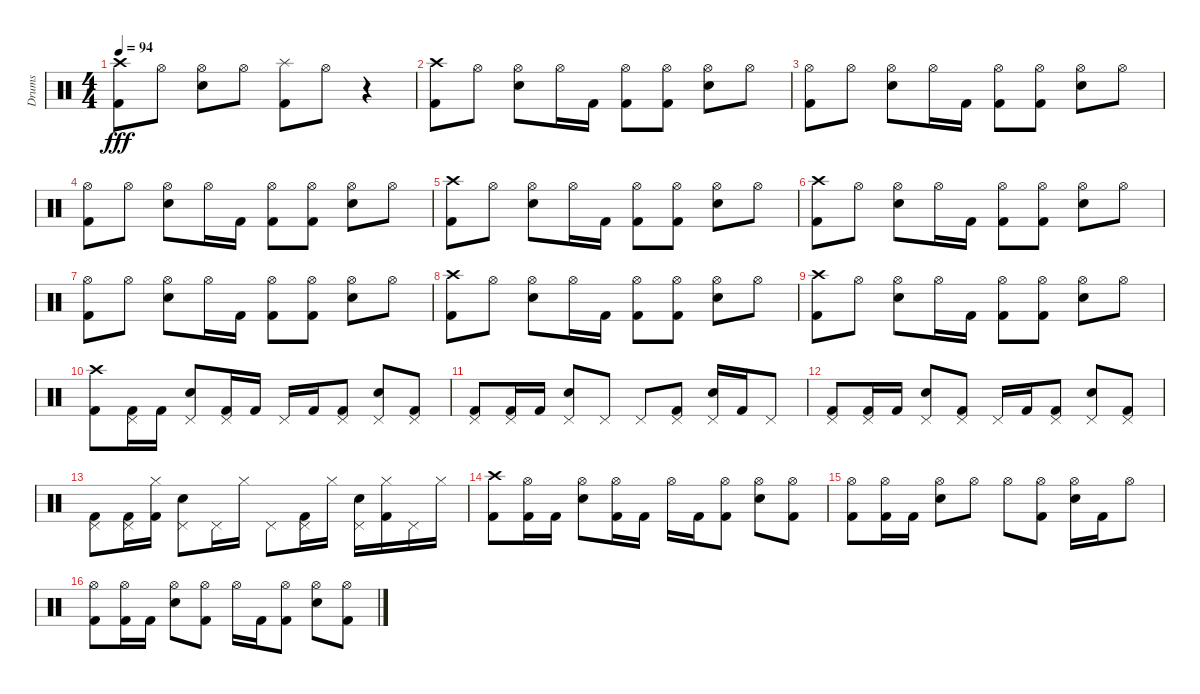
\track ("Drums" "Drums") {instrument percussion}
\staff {score}
\articulation defaults
\ts (4 4)
\tempo 94
\clef neutral
\ks c
("Kick (hit) 2" "Crash high (hit)").8{dy fff} "Hi-Hat (open)".8 ("Snare (hit) 2" "Hi-Hat (open)").8 "Hi-Hat (open)".8 ("Kick (hit) 2" "Splash (hit)").8 "Hi-Hat (open)".8 r.4 |
("Kick (hit) 2" "Crash high (hit)").8 "Hi-Hat (open)".8 ("Snare (hit) 2" "Hi-Hat (open)").8 "Hi-Hat (open)".16 "Kick (hit) 2".16 ("Kick (hit) 2" "Hi-Hat (open)").8 ("Kick (hit) 2" "Hi-Hat (open)").8 ("Snare (hit) 2" "Hi-Hat (open)").8 "Hi-Hat (open)".8 |
("Kick (hit) 2" "Hi-Hat (open)").8 "Hi-Hat (open)".8 ("Snare (hit) 2" "Hi-Hat (open)").8 "Hi-Hat (open)".16 "Kick (hit) 2".16 ("Kick (hit) 2" "Hi-Hat (open)").8 ("Kick (hit) 2" "Hi-Hat (open)").8 ("Snare (hit) 2" "Hi-Hat (open)").8 "Hi-Hat (open)".8 |
("Kick (hit) 2" "Hi-Hat (open)").8 "Hi-Hat (open)".8 ("Snare (hit) 2" "Hi-Hat (open)").8 "Hi-Hat (open)".16 "Kick (hit) 2".16 ("Kick (hit) 2" "Hi-Hat (open)").8 ("Kick (hit) 2" "Hi-Hat (open)").8 ("Snare (hit) 2" "Hi-Hat (open)").8 "Hi-Hat (open)".8 |
("Kick (hit) 2" "Crash high (hit)").8 "Hi-Hat (open)".8 ("Snare (hit) 2" "Hi-Hat (open)").8 "Hi-Hat (open)".16 "Kick (hit) 2".16 ("Kick (hit) 2" "Hi-Hat (open)").8 ("Kick (hit) 2" "Hi-Hat (open)").8 ("Snare (hit) 2" "Hi-Hat (open)").8 "Hi-Hat (open)".8 |
("Kick (hit) 2" "Crash high (hit)").8 "Hi-Hat (open)".8 ("Snare (hit) 2" "Hi-Hat (open)").8 "Hi-Hat (open)".16 "Kick (hit) 2".16 ("Kick (hit) 2" "Hi-Hat (open)").8 ("Kick (hit) 2" "Hi-Hat (open)").8 ("Snare (hit) 2" "Hi-Hat (open)").8 "Hi-Hat (open)".8 |
("Kick (hit) 2" "Hi-Hat (open)").8 "Hi-Hat (open)".8 ("Snare (hit) 2" "Hi-Hat (open)").8 "Hi-Hat (open)".16 "Kick (hit) 2".16 ("Kick (hit) 2" "Hi-Hat (open)").8 ("Kick (hit) 2" "Hi-Hat (open)").8 ("Snare (hit) 2" "Hi-Hat (open)").8 "Hi-Hat (open)".8 |
("Kick (hit) 2" "Crash high (hit)").8 "Hi-Hat (open)".8 ("Snare (hit) 2" "Hi-Hat (open)").8 "Hi-Hat (open)".16 "Kick (hit) 2".16 ("Kick (hit) 2" "Hi-Hat (open)").8 ("Kick (hit) 2" "Hi-Hat (open)").8 ("Snare (hit) 2" "Hi-Hat (open)").8 "Hi-Hat (open)".8 |
("Kick (hit) 2" "Crash high (hit)").8 "Hi-Hat (open)".8 ("Snare (hit) 2" "Hi-Hat (open)").8 "Hi-Hat (open)".16 "Kick (hit) 2".16 ("Kick (hit) 2" "Hi-Hat (open)").8 ("Kick (hit) 2" "Hi-Hat (open)").8 ("Snare (hit) 2" "Hi-Hat (open)").8 "Hi-Hat (open)".8 |
("Kick (hit) 2" "Crash high (hit)").8 ("Pedal Hi-Hat (hit)" "Kick (hit) 2").16 "Kick (hit) 2".16 ("Pedal Hi-Hat (hit)" "Snare (hit) 2").8 ("Pedal Hi-Hat (hit)" "Kick (hit) 2").16 "Kick (hit) 2".16 "Pedal Hi-Hat (hit)".16 "Kick (hit) 2".16 ("Pedal Hi-Hat (hit)" "Kick (hit) 2").8 ("Pedal Hi-Hat (hit)" "Snare (hit) 2").8 ("Pedal Hi-Hat (hit)" "Kick (hit) 2").8 |
("Pedal Hi-Hat (hit)" "Kick (hit) 2").8 ("Pedal Hi-Hat (hit)" "Kick (hit) 2").16 "Kick (hit) 2".16 ("Pedal Hi-Hat (hit)" "Snare (hit) 2").8 "Pedal Hi-Hat (hit)".8 "Pedal Hi-Hat (hit)".8 ("Pedal Hi-Hat (hit)" "Kick (hit) 2").8 ("Pedal Hi-Hat (hit)" "Snare (hit) 2").16 "Kick (hit) 2".16 "Pedal Hi-Hat (hit)".8 |
("Pedal Hi-Hat (hit)" "Kick (hit) 2").8 ("Pedal Hi-Hat (hit)" "Kick (hit) 2").16 "Kick (hit) 2".16 ("Pedal Hi-Hat (hit)" "Snare (hit) 2").8 ("Pedal Hi-Hat (hit)" "Kick (hit) 2").8 "Pedal Hi-Hat (hit)".16 "Kick (hit) 2".16 ("Pedal Hi-Hat (hit)" "Kick (hit) 2").8 ("Pedal Hi-Hat (hit)" "Snare (hit) 2").8 ("Pedal Hi-Hat (hit)" "Kick (hit) 2").8 |
("Pedal Hi-Hat (hit)" "Kick (hit) 2").8 ("Pedal Hi-Hat (hit)" "Kick (hit) 2").16 ("Kick (hit) 2" "Hi-Hat (closed)").16 ("Pedal Hi-Hat (hit)" "Snare (hit) 2").8 "Pedal Hi-Hat (hit)".16 "Hi-Hat (closed)".16 "Pedal Hi-Hat (hit)".8 ("Pedal Hi-Hat (hit)" "Kick (hit) 2").16 "Hi-Hat (closed)".16 ("Pedal Hi-Hat (hit)" "Snare (hit) 2").16 ("Kick (hit) 2" "Hi-Hat (closed)").16 "Pedal Hi-Hat (hit)".16 "Hi-Hat (closed)".16 |
("Kick (hit) 2" "Crash high (hit)").8 ("Kick (hit) 2" "Hi-Hat (open)").16 "Kick (hit) 2".16 ("Snare (hit) 2" "Hi-Hat (open)").8 ("Kick (hit) 2" "Hi-Hat (open)").16 "Kick (hit) 2".16 "Hi-Hat (open)".16 "Kick (hit) 2".16 ("Kick (hit) 2" "Hi-Hat (open)").8 ("Snare (hit) 2" "Hi-Hat (open)").8 ("Kick (hit) 2" "Hi-Hat (open)").8 |
("Kick (hit) 2" "Hi-Hat (open)").8 ("Kick (hit) 2" "Hi-Hat (open)").16 "Kick (hit) 2".16 ("Snare (hit) 2" "Hi-Hat (open)").8 "Hi-Hat (open)".8 "Hi-Hat (open)".8 ("Kick (hit) 2" "Hi-Hat (open)").8 ("Snare (hit) 2" "Hi-Hat (open)").16 "Kick (hit) 2".16 "Hi-Hat (open)".8 |
("Kick (hit) 2" "Hi-Hat (open)").8 ("Kick (hit) 2" "Hi-Hat (open)").16 "Kick (hit) 2".16 ("Snare (hit) 2" "Hi-Hat (open)").8 ("Kick (hit) 2" "Hi-Hat (open)").8 "Hi-Hat (open)".16 "Kick (hit) 2".16 ("Kick (hit) 2" "Hi-Hat (open)").8 ("Snare (hit) 2" "Hi-Hat (open)").8 ("Kick (hit) 2" "Hi-Hat (open)").8
